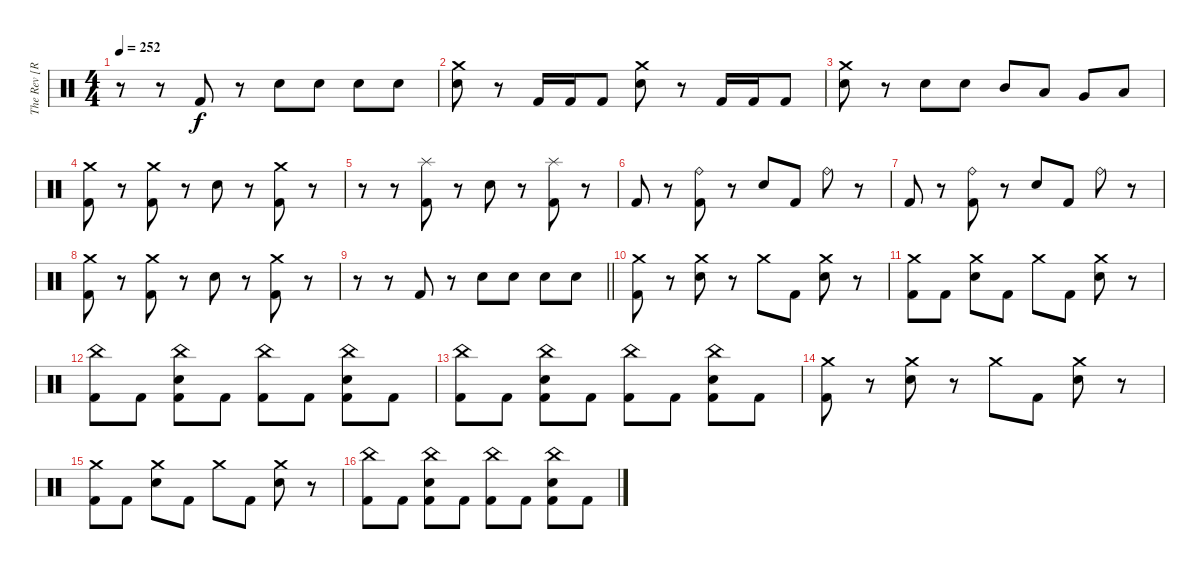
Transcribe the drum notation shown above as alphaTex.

\track ("The Rev [R.I.P]" "The Rev [R") {instrument percussion}
\staff {score}
\articulation defaults
\ts (4 4)
\tempo 252
\clef neutral
\ks c
r.8{dy f} r.8 "Kick (hit) 2".8 r.8 "Electric Snare (hit)".8 "Electric Snare (hit)".8 "Electric Snare (hit)".8 "Electric Snare (hit)".8 |
("Crash medium (hit)" "Electric Snare (hit)").8 r.8 "Kick (hit) 2".16 "Kick (hit) 2".16 "Kick (hit) 2".8 ("Crash medium (hit)" "Electric Snare (hit)").8 r.8 "Kick (hit) 2".16 "Kick (hit) 2".16 "Kick (hit) 2".8 |
("Crash medium (hit)" "Electric Snare (hit)").8 r.8 "Electric Snare (hit)".8 "Electric Snare (hit)".8 "Mid Tom (hit)".8 "Low Tom (hit)".8 "Very Low Tom (hit)".8 "Low Floor Tom (hit)".8 |
("Crash medium (hit)" "Kick (hit) 2").8 r.8 ("Crash medium (hit)" "Kick (hit) 2").8 r.8 "Electric Snare (hit)".8 r.8 ("Crash medium (hit)" "Kick (hit) 2").8 r.8 |
r.8 r.8 ("Splash (hit)" "Kick (hit) 2").8 r.8 "Electric Snare (hit)".8 r.8 ("Splash (hit)" "Kick (hit) 2").8 r.8 |
"Kick (hit) 2".8 r.8 ("Ride (bell)" "Kick (hit) 2").8 r.8 "Electric Snare (hit)".8 "Kick (hit) 2".8 "Ride (bell)".8 r.8 |
"Kick (hit) 2".8 r.8 ("Ride (bell)" "Kick (hit) 2").8 r.8 "Electric Snare (hit)".8 "Kick (hit) 2".8 "Ride (bell)".8 r.8 |
("Crash medium (hit)" "Kick (hit) 2").8 r.8 ("Crash medium (hit)" "Kick (hit) 2").8 r.8 "Electric Snare (hit)".8 r.8 ("Crash medium (hit)" "Kick (hit) 2").8 r.8 |
\barLineRight lightlight
r.8 r.8 "Kick (hit) 2".8 r.8 "Electric Snare (hit)".8 "Electric Snare (hit)".8 "Electric Snare (hit)".8 "Electric Snare (hit)".8 |
("Crash medium (hit)" "Kick (hit) 2").8 r.8 ("Crash medium (hit)" "Electric Snare (hit)").8 r.8 "Crash medium (hit)".8 "Kick (hit) 2".8 ("Crash medium (hit)" "Electric Snare (hit)").8 r.8 |
("Crash medium (hit)" "Kick (hit) 2").8 "Kick (hit) 2".8 ("Crash medium (hit)" "Electric Snare (hit)").8 "Kick (hit) 2".8 "Crash medium (hit)".8 "Kick (hit) 2".8 ("Crash medium (hit)" "Electric Snare (hit)").8 r.8 |
("China (hit)" "Kick (hit) 2").8 "Kick (hit) 2".8 ("China (hit)" "Electric Snare (hit)" "Kick (hit) 2").8 "Kick (hit) 2".8 ("China (hit)" "Kick (hit) 2").8 "Kick (hit) 2".8 ("China (hit)" "Electric Snare (hit)" "Kick (hit) 2").8 "Kick (hit) 2".8 |
("China (hit)" "Kick (hit) 2").8 "Kick (hit) 2".8 ("China (hit)" "Electric Snare (hit)" "Kick (hit) 2").8 "Kick (hit) 2".8 ("China (hit)" "Kick (hit) 2").8 "Kick (hit) 2".8 ("China (hit)" "Electric Snare (hit)" "Kick (hit) 2").8 "Kick (hit) 2".8 |
("Crash medium (hit)" "Kick (hit) 2").8 r.8 ("Crash medium (hit)" "Electric Snare (hit)").8 r.8 "Crash medium (hit)".8 "Kick (hit) 2".8 ("Crash medium (hit)" "Electric Snare (hit)").8 r.8 |
("Crash medium (hit)" "Kick (hit) 2").8 "Kick (hit) 2".8 ("Crash medium (hit)" "Electric Snare (hit)").8 "Kick (hit) 2".8 "Crash medium (hit)".8 "Kick (hit) 2".8 ("Crash medium (hit)" "Electric Snare (hit)").8 r.8 |
("China (hit)" "Kick (hit) 2").8 "Kick (hit) 2".8 ("China (hit)" "Electric Snare (hit)" "Kick (hit) 2").8 "Kick (hit) 2".8 ("China (hit)" "Kick (hit) 2").8 "Kick (hit) 2".8 ("China (hit)" "Electric Snare (hit)" "Kick (hit) 2").8 "Kick (hit) 2".8
